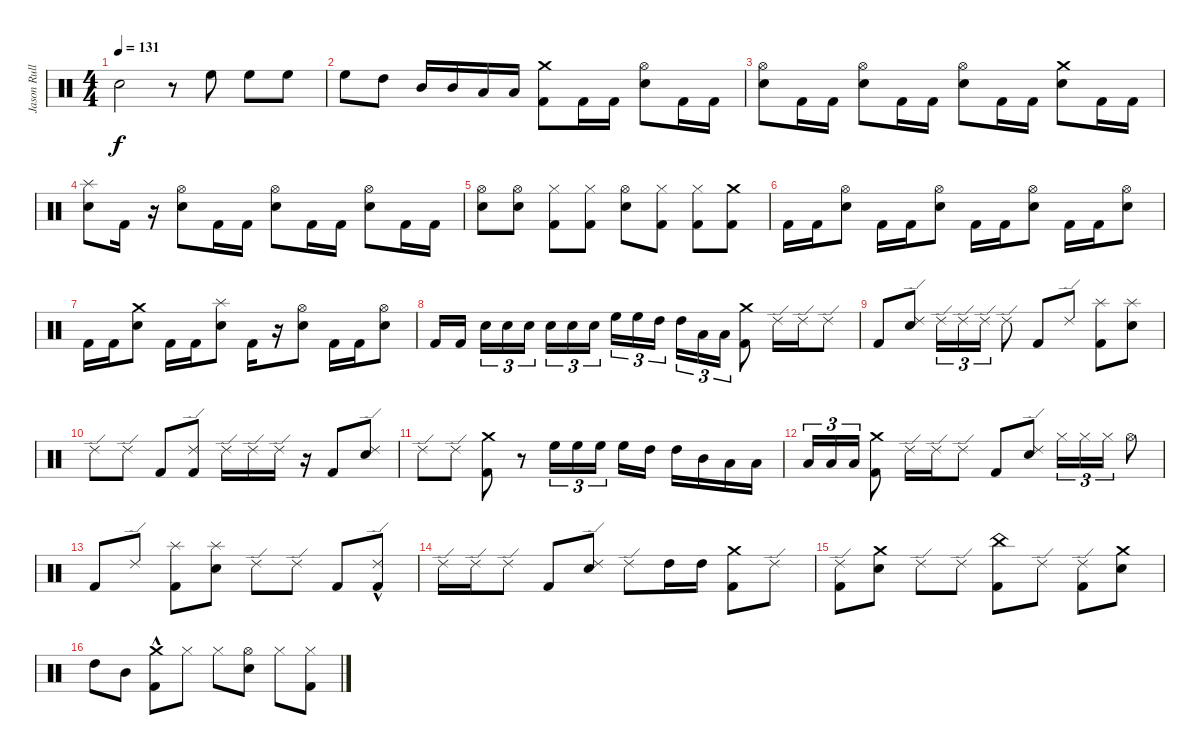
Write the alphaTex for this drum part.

\track ("Jason Rullo (Drums)" "Jason Rull") {instrument percussion}
\staff {score}
\articulation defaults
\ts (4 4)
\tempo 131
\clef neutral
\ks c "Snare (hit)"{t}.2{dy f}
r.8 "High Floor Tom (hit)".8{volume 11} "High Floor Tom (hit)".8{volume 13} "High Floor Tom (hit)".8{volume 14} |
"High Floor Tom (hit)".8{volume 16} "High Tom (hit)".8 "Mid Tom (hit)".16 "Mid Tom (hit)".16 "Low Tom (hit)".16 "Low Tom (hit)".16 ("Crash medium (hit)" "Kick (hit) 2").8 "Kick (hit) 2".16 "Kick (hit) 2".16 ("Hi-Hat (open)" "Electric Snare (hit)").8 "Kick (hit) 2".16 "Kick (hit) 2".16 |
("Hi-Hat (open)" "Electric Snare (hit)").8 "Kick (hit) 2".16 "Kick (hit) 2".16 ("Hi-Hat (open)" "Electric Snare (hit)").8 "Kick (hit) 2".16 "Kick (hit) 2".16 ("Hi-Hat (open)" "Electric Snare (hit)").8 "Kick (hit) 2".16 "Kick (hit) 2".16 ("Crash medium (hit)" "Electric Snare (hit)").8 "Kick (hit) 2".16 "Kick (hit) 2".16 |
("Splash (hit)" "Electric Snare (hit)").8 "Kick (hit) 2".16 r.16 ("Electric Snare (hit)" "Hi-Hat (open)").8 "Kick (hit) 2".16 "Kick (hit) 2".16 ("Electric Snare (hit)" "Hi-Hat (open)").8 "Kick (hit) 2".16 "Kick (hit) 2".16 ("Electric Snare (hit)" "Hi-Hat (open)").8 "Kick (hit) 2".16 "Kick (hit) 2".16 |
("Electric Snare (hit)" "Hi-Hat (open)").8 ("Hi-Hat (open)" "Electric Snare (hit)").8 ("Hi-Hat (closed)" "Kick (hit) 2").8 ("Hi-Hat (closed)" "Kick (hit) 2").8 ("Hi-Hat (open)" "Electric Snare (hit)").8 ("Hi-Hat (closed)" "Kick (hit) 2").8 ("Hi-Hat (closed)" "Kick (hit) 2").8 ("Crash medium (hit)" "Kick (hit) 2").8 |
"Kick (hit) 2".16 "Kick (hit) 2".16 ("Hi-Hat (open)" "Electric Snare (hit)").8 "Kick (hit) 2".16 "Kick (hit) 2".16 ("Hi-Hat (open)" "Electric Snare (hit)").8 "Kick (hit) 2".16 "Kick (hit) 2".16 ("Hi-Hat (open)" "Electric Snare (hit)").8 "Kick (hit) 2".16 "Kick (hit) 2".16 ("Hi-Hat (open)" "Electric Snare (hit)").8 |
"Kick (hit) 2".16 "Kick (hit) 2".16 ("Crash medium (hit)" "Electric Snare (hit)").8 "Kick (hit) 2".16 "Kick (hit) 2".16 ("Splash (hit)" "Electric Snare (hit)").8 "Kick (hit) 2".16 r.16 ("Electric Snare (hit)" "Hi-Hat (open)").8 "Kick (hit) 2".16 "Kick (hit) 2".16 ("Electric Snare (hit)" "Hi-Hat (open)").8 |
"Kick (hit) 2".16 "Kick (hit) 2".16 "Electric Snare (hit)".16{tu (3 2) volume 9} "Electric Snare (hit)".16{tu (3 2) volume 10} "Electric Snare (hit)".16{tu (3 2) volume 11} "Electric Snare (hit)".16{tu (3 2) volume 12} "Electric Snare (hit)".16{tu (3 2) volume 14} "Electric Snare (hit)".16{tu (3 2) volume 15} "High Floor Tom (hit)".16{tu (3 2) volume 16} "High Floor Tom (hit)".16{tu (3 2)} "High Tom (hit)".16{tu (3 2)} "High Tom (hit)".16{tu (3 2)} "Low Tom (hit)".16{tu (3 2)} "Low Tom (hit)".16{tu (3 2)} ("Crash medium (hit)" "Kick (hit) 2").8 "Ride (edge) 2".16 "Ride (edge) 2".16 "Ride (edge) 2".8 |
"Kick (hit) 2".8 ("Ride (edge) 2" "Electric Snare (hit)").8 "Ride (edge) 2".16{tu (3 2) volume 11} "Ride (edge) 2".16{tu (3 2) volume 13} "Ride (edge) 2".16{tu (3 2) volume 14} "Ride (edge) 2".8{volume 16} "Kick (hit) 2".8 "Ride (edge) 2".8 ("Splash (hit)" "Kick (hit) 2").8 ("Splash (hit)" "Electric Snare (hit)").8 |
"Ride (edge) 2".8 "Ride (edge) 2".8 "Kick (hit) 2".8 ("Ride (edge) 2" "Kick (hit) 2").8 "Ride (edge) 2".16 "Ride (edge) 2".16 "Ride (edge) 2".16 r.16 "Kick (hit) 2".8 ("Ride (edge) 2" "Electric Snare (hit)").8 |
"Ride (edge) 2".8 "Ride (edge) 2".8 ("Crash medium (hit)" "Kick (hit) 2").8 r.8 "High Floor Tom (hit)".16{tu (3 2) volume 11} "High Floor Tom (hit)".16{tu (3 2) volume 12} "High Floor Tom (hit)".16{tu (3 2) volume 12} "High Floor Tom (hit)".16{volume 12} "High Tom (hit)".16{volume 13} "High Tom (hit)".16{volume 13} "Mid Tom (hit)".16{volume 14} "Low Tom (hit)".16{volume 14} "Low Tom (hit)".16{volume 15} |
"Low Tom (hit)".16{tu (3 2) volume 15} "Low Tom (hit)".16{tu (3 2) volume 16} "Low Tom (hit)".16{tu (3 2) volume 16} ("Crash medium (hit)" "Kick (hit) 2").8 "Ride (edge) 2".16 "Ride (edge) 2".16 "Ride (edge) 2".8 "Kick (hit) 2".8 ("Ride (edge) 2" "Electric Snare (hit)").8 "Hi-Hat (closed)".16{tu (3 2) volume 11} "Hi-Hat (closed)".16{tu (3 2) volume 13} "Hi-Hat (closed)".16{tu (3 2) volume 14} "Hi-Hat (open)".8{volume 16} |
"Kick (hit) 2".8 "Ride (edge) 2".8 ("Splash (hit)" "Kick (hit) 2").8 ("Splash (hit)" "Electric Snare (hit)").8 "Ride (edge) 2".8 "Ride (edge) 2".8 "Kick (hit) 2".8 ("Ride (edge) 2" "Kick (hit) 2"{hac}).8 |
"Ride (edge) 2".16 "Ride (edge) 2".16 "Ride (edge) 2".8 "Kick (hit) 2".8 ("Ride (edge) 2" "Electric Snare (hit)").8 "Ride (edge) 2".8 "High Tom (hit)".16 "High Tom (hit)".16 ("Crash medium (hit)" "Kick (hit) 2").8 "Ride (edge) 2".8 |
("Ride (edge) 2" "Kick (hit) 2").8 ("Crash medium (hit)" "Electric Snare (hit)").8 "Ride (edge) 2".8 "Ride (edge) 2".8 ("China (hit)" "Kick (hit) 2").8 "Ride (edge) 2".8 ("Ride (edge) 2" "Kick (hit) 2").8 ("Crash medium (hit)" "Electric Snare (hit)").8 |
"High Tom (hit)".8 "Mid Tom (hit)".8 ("Crash medium (hit)" "Kick (hit) 2"{hac}).8 "Hi-Hat (closed)".8 "Hi-Hat (closed)".8 ("Hi-Hat (open)" "Electric Snare (hit)").8 "Hi-Hat (closed)".8 ("Hi-Hat (closed)" "Kick (hit) 2").8
